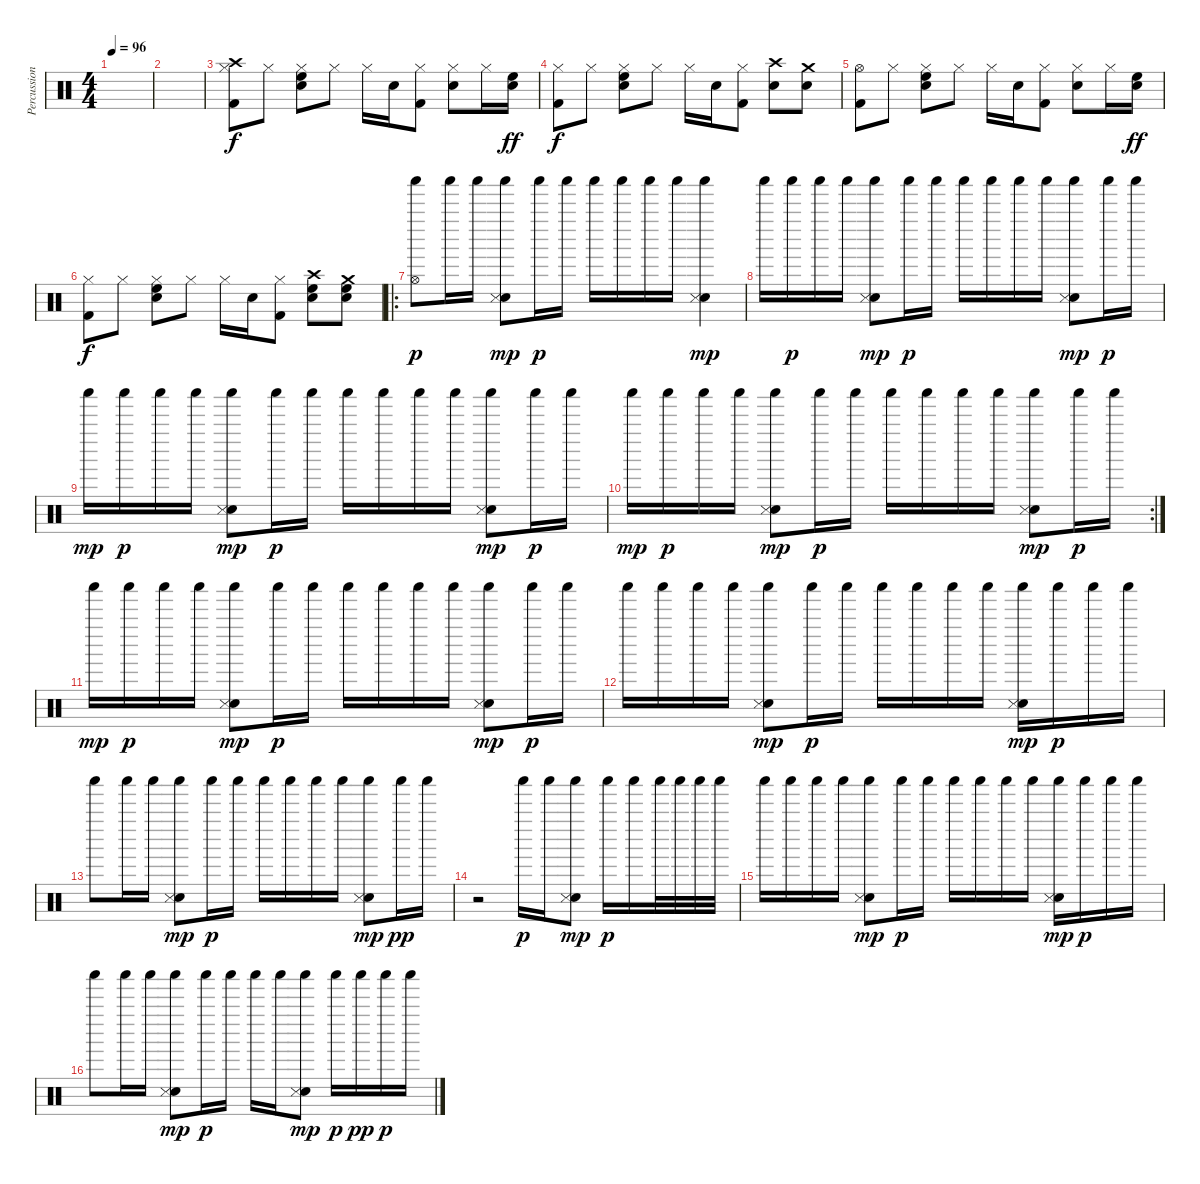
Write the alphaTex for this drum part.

\track ("Percussion" "Percussion") {instrument percussion}
\staff {score}
\articulation defaults
\ts (4 4)
\tempo 96
\clef neutral
\ks c
|
|
("Crash high (hit)" "Hi-Hat (closed)" "Kick (hit) 2").8 "Hi-Hat (closed)".8 ("Hi-Hat (closed)" "Snare (hit) 2" "High Floor Tom (hit)").8 "Hi-Hat (closed)".8 "Hi-Hat (closed)".16 "Snare (hit) 2".16 ("Hi-Hat (closed)" "Kick (hit) 2").8 ("Hi-Hat (closed)" "Snare (hit) 2").8 "Hi-Hat (closed)".16 ("Snare (hit) 2" "High Floor Tom (hit)").16{dy ff} |
("Hi-Hat (closed)" "Kick (hit) 2").8{dy f} "Hi-Hat (closed)".8 ("Hi-Hat (closed)" "Snare (hit) 2" "High Floor Tom (hit)").8 "Hi-Hat (closed)".8 "Hi-Hat (closed)".16 "Snare (hit) 2".16 ("Hi-Hat (closed)" "Kick (hit) 2").8 ("Crash high (hit)" "Snare (hit) 2").8 ("Crash medium (hit)" "Snare (hit) 2").8 |
("Hi-Hat (open)" "Kick (hit) 2").8 "Hi-Hat (closed)".8 ("Hi-Hat (closed)" "Snare (hit) 2" "High Floor Tom (hit)").8 "Hi-Hat (closed)".8 "Hi-Hat (closed)".16 "Snare (hit) 2".16 ("Hi-Hat (closed)" "Kick (hit) 2").8 ("Hi-Hat (closed)" "Snare (hit) 2").8 "Hi-Hat (closed)".16 ("Snare (hit) 2" "High Floor Tom (hit)").16{dy ff} |
("Hi-Hat (closed)" "Kick (hit) 2").8{dy f} "Hi-Hat (closed)".8 ("Hi-Hat (closed)" "Snare (hit) 2" "High Floor Tom (hit)").8 "Hi-Hat (closed)".8 "Hi-Hat (closed)".16 "Snare (hit) 2".16 ("Hi-Hat (closed)" "Kick (hit) 2").8 ("Crash high (hit)" "Snare (hit) 2" "High Floor Tom (hit)").8 ("Crash medium (hit)" "Snare (hit) 2" "High Floor Tom (hit)").8 |
\ro
("Hi-Hat (open)" "Shaker (hit)").8{dy p volume 13} "Shaker (hit)".16 "Shaker (hit)".16 ("Shaker (hit)" "Hand Clap (hit)" "Snare (side stick) 3").8{dy mp} "Shaker (hit)".16{dy p} "Shaker (hit)".16 "Shaker (hit)".16 "Shaker (hit)".16 "Shaker (hit)".16 "Shaker (hit)".16 ("Shaker (hit)" "Hand Clap (hit)" "Snare (side stick) 3").4{dy mp} |
"Shaker (hit)".16 "Shaker (hit)".16{dy p volume 13} "Shaker (hit)".16 "Shaker (hit)".16 ("Shaker (hit)" "Hand Clap (hit)" "Snare (side stick) 3").8{dy mp} "Shaker (hit)".16{dy p} "Shaker (hit)".16 "Shaker (hit)".16 "Shaker (hit)".16 "Shaker (hit)".16 "Shaker (hit)".16 ("Shaker (hit)" "Hand Clap (hit)" "Snare (side stick) 3").8{dy mp} "Shaker (hit)".16{dy p} "Shaker (hit)".16 |
"Shaker (hit)".16{dy mp} "Shaker (hit)".16{dy p volume 13} "Shaker (hit)".16 "Shaker (hit)".16 ("Shaker (hit)" "Hand Clap (hit)" "Snare (side stick) 3").8{dy mp} "Shaker (hit)".16{dy p} "Shaker (hit)".16 "Shaker (hit)".16 "Shaker (hit)".16 "Shaker (hit)".16 "Shaker (hit)".16 ("Shaker (hit)" "Hand Clap (hit)" "Snare (side stick) 3").8{dy mp} "Shaker (hit)".16{dy p} "Shaker (hit)".16 |
\rc 2 "Shaker (hit)".16{dy mp} "Shaker (hit)".16{dy p volume 13} "Shaker (hit)".16 "Shaker (hit)".16
("Shaker (hit)" "Hand Clap (hit)" "Snare (side stick) 3").8{dy mp} "Shaker (hit)".16{dy p} "Shaker (hit)".16 "Shaker (hit)".16 "Shaker (hit)".16 "Shaker (hit)".16 "Shaker (hit)".16 ("Shaker (hit)" "Hand Clap (hit)" "Snare (side stick) 3").8{dy mp} "Shaker (hit)".16{dy p} "Shaker (hit)".16 |
"Shaker (hit)".16{dy mp} "Shaker (hit)".16{dy p volume 13} "Shaker (hit)".16 "Shaker (hit)".16 ("Shaker (hit)" "Hand Clap (hit)" "Snare (side stick) 3").8{dy mp} "Shaker (hit)".16{dy p} "Shaker (hit)".16 "Shaker (hit)".16 "Shaker (hit)".16 "Shaker (hit)".16 "Shaker (hit)".16 ("Shaker (hit)" "Hand Clap (hit)" "Snare (side stick) 3").8{dy mp} "Shaker (hit)".16{dy p} "Shaker (hit)".16 |
"Shaker (hit)".16 "Shaker (hit)".16{volume 13} "Shaker (hit)".16 "Shaker (hit)".16 ("Shaker (hit)" "Hand Clap (hit)" "Snare (side stick) 3").8{dy mp} "Shaker (hit)".16{dy p} "Shaker (hit)".16 "Shaker (hit)".16 "Shaker (hit)".16 "Shaker (hit)".16 "Shaker (hit)".16 ("Shaker (hit)" "Hand Clap (hit)" "Snare (side stick) 3").16{dy mp} "Shaker (hit)".16{dy p} "Shaker (hit)".16 "Shaker (hit)".16 |
"Shaker (hit)".8{volume 13} "Shaker (hit)".16 "Shaker (hit)".16 ("Shaker (hit)" "Hand Clap (hit)" "Snare (side stick) 3").8{dy mp} "Shaker (hit)".16{dy p} "Shaker (hit)".16 "Shaker (hit)".16 "Shaker (hit)".16 "Shaker (hit)".16 "Shaker (hit)".16 ("Shaker (hit)" "Hand Clap (hit)" "Snare (side stick) 3").8{dy mp} "Shaker (hit)".16{dy pp} "Shaker (hit)".16 |
r.2 "Shaker (hit)".16{dy p} "Shaker (hit)".16 ("Shaker (hit)" "Hand Clap (hit)" "Snare (side stick) 3").8{dy mp} "Shaker (hit)".16{dy p} "Shaker (hit)".16 "Shaker (hit)".32 "Shaker (hit)".32 "Shaker (hit)".32 "Shaker (hit)".32 |
"Shaker (hit)".16 "Shaker (hit)".16{volume 13} "Shaker (hit)".16 "Shaker (hit)".16 ("Shaker (hit)" "Hand Clap (hit)" "Snare (side stick) 3").8{dy mp} "Shaker (hit)".16{dy p} "Shaker (hit)".16 "Shaker (hit)".16 "Shaker (hit)".16 "Shaker (hit)".16 "Shaker (hit)".16 ("Shaker (hit)" "Hand Clap (hit)" "Snare (side stick) 3").16{dy mp} "Shaker (hit)".16{dy p} "Shaker (hit)".16 "Shaker (hit)".16 |
"Shaker (hit)".8{volume 13} "Shaker (hit)".16 "Shaker (hit)".16 ("Shaker (hit)" "Hand Clap (hit)" "Snare (side stick) 3").8{dy mp} "Shaker (hit)".16{dy p} "Shaker (hit)".16 "Shaker (hit)".16 "Shaker (hit)".16 ("Shaker (hit)" "Hand Clap (hit)" "Snare (side stick) 3").8{dy mp} "Shaker (hit)".16{dy p} "Shaker (hit)".16{dy pp} "Shaker (hit)".16{dy p} "Shaker (hit)".16
